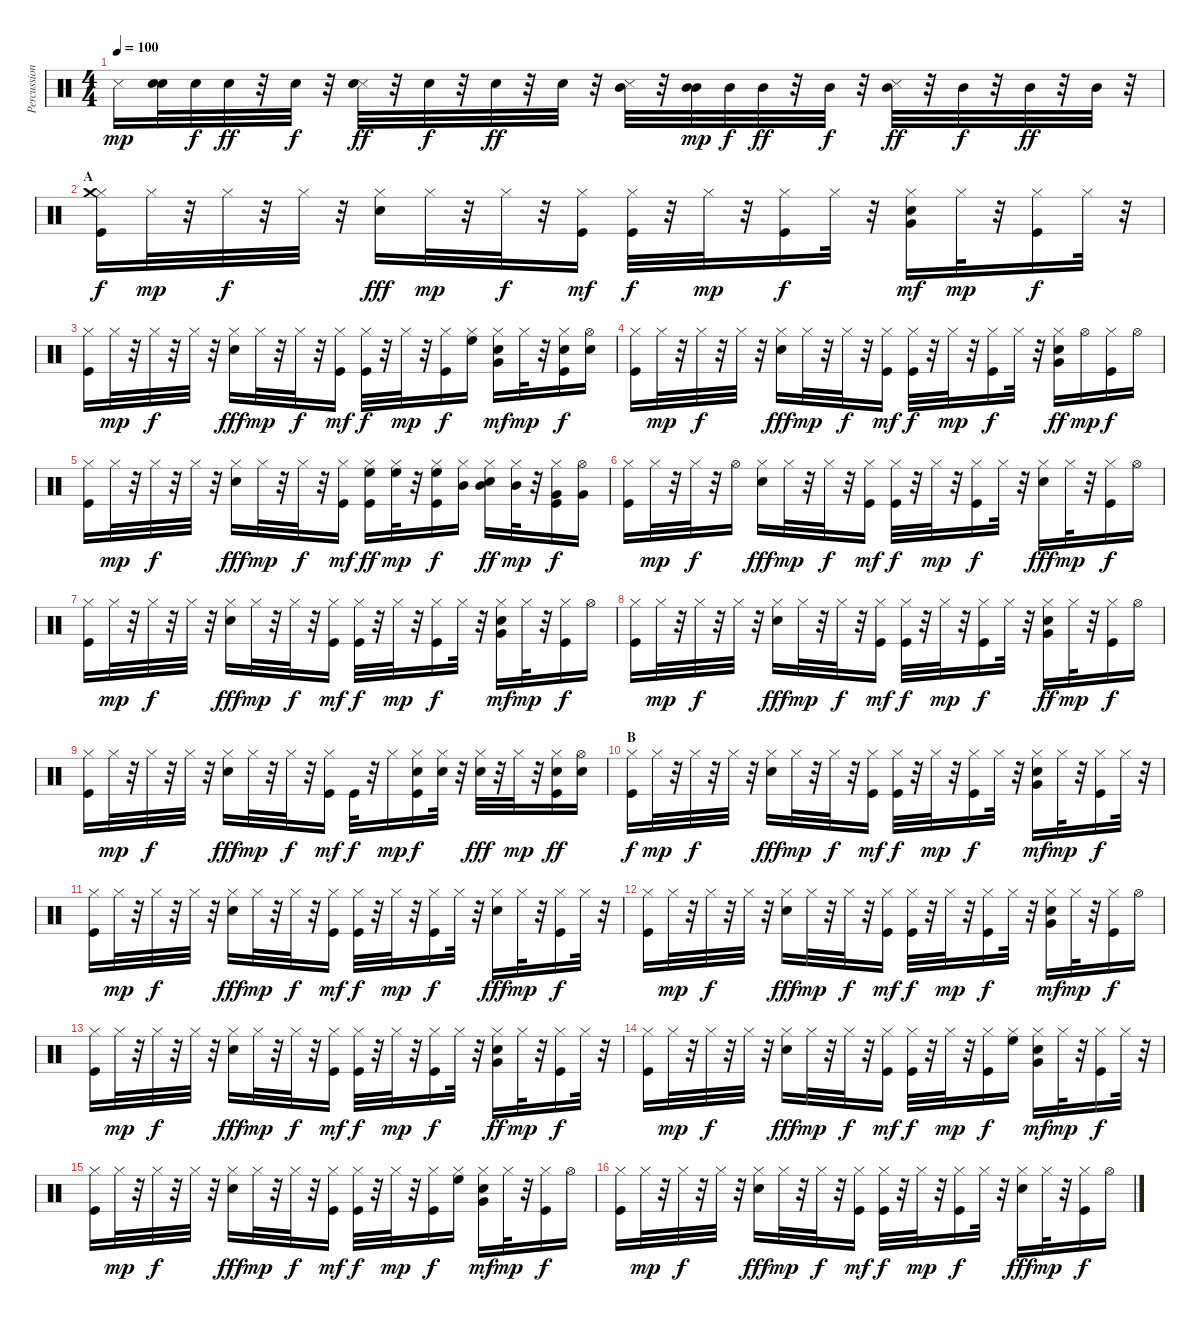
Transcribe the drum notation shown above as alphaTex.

\track ("Percussion" "Percussion") {instrument percussion}
\staff {score}
\articulation defaults
\ts (4 4)
\tempo 100
\clef neutral
\ks c "Metronome (hit)".16{dy mp}
("Electric Snare (hit)" "Electric Snare (hit)").32 "Electric Snare (hit)".32{dy f} "Electric Snare (hit)".32{dy ff} r.32 "Electric Snare (hit)".32{dy f} r.32 ("Metronome (hit)" "Electric Snare (hit)").32{dy ff} r.32 "Electric Snare (hit)".32{dy f} r.32 "Electric Snare (hit)".32{dy ff} r.32 "Electric Snare (hit)".32 r.32 ("Metronome (hit)" "Mid Tom (hit)").32 r.32 ("Mid Tom (hit)" "Mid Tom (hit)").32{dy mp} "Mid Tom (hit)".32{dy f} "Mid Tom (hit)".32{dy ff} r.32 "Mid Tom (hit)".32{dy f} r.32 ("Metronome (hit)" "Mid Tom (hit)").32{dy ff} r.32 "Mid Tom (hit)".32{dy f} r.32 "Mid Tom (hit)".32{dy ff} r.32 "Mid Tom (hit)".32 r.32 |
\section ("" "A")
("Kick (hit)" "Hi-Hat (closed)" "Crash medium (hit)").16{dy f} "Hi-Hat (closed)".32{dy mp} r.32 "Hi-Hat (closed)".32{dy f} r.32 "Hi-Hat (closed)".32 r.32 ("Electric Snare (hit)" "Hi-Hat (closed)").16{dy fff} "Hi-Hat (closed)".32{dy mp} r.32 "Hi-Hat (closed)".32{dy f} r.32 ("Kick (hit)" "Hi-Hat (closed)").16{dy mf} ("Kick (hit)" "Hi-Hat (closed)").32{dy f} r.32 "Hi-Hat (closed)".32{dy mp} r.32 ("Kick (hit)" "Hi-Hat (closed)").16{dy f} "Hi-Hat (closed)".32 r.32 ("Electric Snare (hit)" "Hi-Hat (closed)" "Very Low Tom (hit)").16{dy mf} "Hi-Hat (closed)".32{dy mp} r.32 ("Kick (hit)" "Hi-Hat (closed)").16{dy f} "Hi-Hat (closed)".32 r.32 |
("Kick (hit)" "Hi-Hat (closed)").16 "Hi-Hat (closed)".32{dy mp} r.32 "Hi-Hat (closed)".32{dy f} r.32 "Hi-Hat (closed)".32 r.32 ("Electric Snare (hit)" "Hi-Hat (closed)").16{dy fff} "Hi-Hat (closed)".32{dy mp} r.32 "Hi-Hat (closed)".32{dy f} r.32 ("Kick (hit)" "Hi-Hat (closed)").16{dy mf} ("Kick (hit)" "Hi-Hat (closed)").32{dy f} r.32 "Hi-Hat (closed)".32{dy mp} r.32 ("Kick (hit)" "Hi-Hat (closed)").16{dy f} ("Hi-Hat (closed)" "High Floor Tom (hit)").16 ("Electric Snare (hit)" "Hi-Hat (closed)" "Very Low Tom (hit)").16{dy mf} "Hi-Hat (closed)".32{dy mp} r.32 ("Kick (hit)" "Electric Snare (hit)" "Hi-Hat (closed)").16{dy f} ("Electric Snare (hit)" "Hi-Hat (open)").16 |
("Kick (hit)" "Hi-Hat (closed)").16 "Hi-Hat (closed)".32{dy mp} r.32 "Hi-Hat (closed)".32{dy f} r.32 "Hi-Hat (closed)".32 r.32 ("Electric Snare (hit)" "Hi-Hat (closed)").16{dy fff} "Hi-Hat (closed)".32{dy mp} r.32 "Hi-Hat (closed)".32{dy f} r.32 ("Kick (hit)" "Hi-Hat (closed)").16{dy mf} ("Kick (hit)" "Hi-Hat (closed)").32{dy f} r.32 "Hi-Hat (closed)".32{dy mp} r.32 ("Kick (hit)" "Hi-Hat (closed)").16{dy f} "Hi-Hat (closed)".32 r.32 ("Electric Snare (hit)" "Hi-Hat (closed)" "Very Low Tom (hit)").16{dy ff} "Hi-Hat (open)".16{dy mp} ("Kick (hit)" "Hi-Hat (closed)").16{dy f} "Hi-Hat (open)".16 |
("Kick (hit)" "Hi-Hat (closed)").16 "Hi-Hat (closed)".32{dy mp} r.32 "Hi-Hat (closed)".32{dy f} r.32 "Hi-Hat (closed)".32 r.32 ("Electric Snare (hit)" "Hi-Hat (closed)").16{dy fff} "Hi-Hat (closed)".32{dy mp} r.32 "Hi-Hat (closed)".32{dy f} r.32 ("Kick (hit)" "Hi-Hat (closed)").16{dy mf} ("Kick (hit)" "Hi-Hat (closed)" "High Floor Tom (hit)").16{dy ff} ("Hi-Hat (closed)" "High Floor Tom (hit)").32{dy mp} r.32 ("Kick (hit)" "Hi-Hat (closed)" "High Floor Tom (hit)").16{dy f} ("Hi-Hat (closed)" "Mid Tom (hit)").16 ("Electric Snare (hit)" "Hi-Hat (closed)" "Mid Tom (hit)").16{dy ff} ("Hi-Hat (closed)" "Mid Tom (hit)").32{dy mp} r.32 ("Kick (hit)" "Hi-Hat (closed)" "Very Low Tom (hit)").16{dy f} ("Very Low Tom (hit)" "Hi-Hat (open)").16 |
("Kick (hit)" "Hi-Hat (closed)").16 "Hi-Hat (closed)".32{dy mp} r.32 "Hi-Hat (closed)".32{dy f} r.32 "Hi-Hat (open)".16 ("Electric Snare (hit)" "Hi-Hat (closed)").16{dy fff} "Hi-Hat (closed)".32{dy mp} r.32 "Hi-Hat (closed)".32{dy f} r.32 ("Kick (hit)" "Hi-Hat (closed)").16{dy mf} ("Kick (hit)" "Hi-Hat (closed)").32{dy f} r.32 "Hi-Hat (closed)".32{dy mp} r.32 ("Kick (hit)" "Hi-Hat (closed)").16{dy f} "Hi-Hat (closed)".32 r.32 ("Electric Snare (hit)" "Hi-Hat (closed)").16{dy fff} "Hi-Hat (closed)".32{dy mp} r.32 ("Kick (hit)" "Hi-Hat (closed)").16{dy f} "Hi-Hat (open)".16 |
("Kick (hit)" "Hi-Hat (closed)").16 "Hi-Hat (closed)".32{dy mp} r.32 "Hi-Hat (closed)".32{dy f} r.32 "Hi-Hat (closed)".32 r.32 ("Electric Snare (hit)" "Hi-Hat (closed)").16{dy fff} "Hi-Hat (closed)".32{dy mp} r.32 "Hi-Hat (closed)".32{dy f} r.32 ("Kick (hit)" "Hi-Hat (closed)").16{dy mf} ("Kick (hit)" "Hi-Hat (closed)").32{dy f} r.32 "Hi-Hat (closed)".32{dy mp} r.32 ("Kick (hit)" "Hi-Hat (closed)").16{dy f} "Hi-Hat (closed)".32 r.32 ("Electric Snare (hit)" "Hi-Hat (closed)" "Very Low Tom (hit)").16{dy mf} "Hi-Hat (closed)".32{dy mp} r.32 ("Kick (hit)" "Hi-Hat (closed)").16{dy f} "Hi-Hat (open)".16 |
("Kick (hit)" "Hi-Hat (closed)").16 "Hi-Hat (closed)".32{dy mp} r.32 "Hi-Hat (closed)".32{dy f} r.32 "Hi-Hat (closed)".32 r.32 ("Electric Snare (hit)" "Hi-Hat (closed)").16{dy fff} "Hi-Hat (closed)".32{dy mp} r.32 "Hi-Hat (closed)".32{dy f} r.32 ("Kick (hit)" "Hi-Hat (closed)").16{dy mf} ("Kick (hit)" "Hi-Hat (closed)").32{dy f} r.32 "Hi-Hat (closed)".32{dy mp} r.32 ("Kick (hit)" "Hi-Hat (closed)").16{dy f} "Hi-Hat (closed)".32 r.32 ("Electric Snare (hit)" "Hi-Hat (closed)" "Very Low Tom (hit)").16{dy ff} "Hi-Hat (closed)".32{dy mp} r.32 ("Kick (hit)" "Hi-Hat (closed)").16{dy f} "Hi-Hat (open)".16 |
("Kick (hit)" "Hi-Hat (closed)").16 "Hi-Hat (closed)".32{dy mp} r.32 "Hi-Hat (closed)".32{dy f} r.32 "Hi-Hat (closed)".32 r.32 ("Electric Snare (hit)" "Hi-Hat (closed)").16{dy fff} "Hi-Hat (closed)".32{dy mp} r.32 "Hi-Hat (closed)".32{dy f} r.32 ("Kick (hit)" "Hi-Hat (closed)").16{dy mf} "Kick (hit)".32{dy f} r.32 "Hi-Hat (closed)".16{dy mp} ("Kick (hit)" "Electric Snare (hit)" "Hi-Hat (closed)").16{dy f} ("Electric Snare (hit)" "Hi-Hat (closed)").32 r.32 ("Electric Snare (hit)" "Hi-Hat (closed)").32{dy fff} r.32 "Hi-Hat (closed)".32{dy mp} r.32 ("Kick (hit)" "Electric Snare (hit)" "Hi-Hat (closed)").16{dy ff} ("Electric Snare (hit)" "Hi-Hat (open)").16 |
\section ("" "B")
("Kick (hit)" "Hi-Hat (closed)").16{dy f} "Hi-Hat (closed)".32{dy mp} r.32 "Hi-Hat (closed)".32{dy f} r.32 "Hi-Hat (closed)".32 r.32 ("Electric Snare (hit)" "Hi-Hat (closed)").16{dy fff} "Hi-Hat (closed)".32{dy mp} r.32 "Hi-Hat (closed)".32{dy f} r.32 ("Kick (hit)" "Hi-Hat (closed)").16{dy mf} ("Kick (hit)" "Hi-Hat (closed)").32{dy f} r.32 "Hi-Hat (closed)".32{dy mp} r.32 ("Kick (hit)" "Hi-Hat (closed)").16{dy f} "Hi-Hat (closed)".32 r.32 ("Electric Snare (hit)" "Hi-Hat (closed)" "Very Low Tom (hit)").16{dy mf} "Hi-Hat (closed)".32{dy mp} r.32 ("Kick (hit)" "Hi-Hat (closed)").16{dy f} "Hi-Hat (closed)".32 r.32 |
("Kick (hit)" "Hi-Hat (closed)").16 "Hi-Hat (closed)".32{dy mp} r.32 "Hi-Hat (closed)".32{dy f} r.32 "Hi-Hat (closed)".32 r.32 ("Electric Snare (hit)" "Hi-Hat (closed)").16{dy fff} "Hi-Hat (closed)".32{dy mp} r.32 "Hi-Hat (closed)".32{dy f} r.32 ("Kick (hit)" "Hi-Hat (closed)").16{dy mf} ("Kick (hit)" "Hi-Hat (closed)").32{dy f} r.32 "Hi-Hat (closed)".32{dy mp} r.32 ("Kick (hit)" "Hi-Hat (closed)").16{dy f} "Hi-Hat (closed)".32 r.32 ("Electric Snare (hit)" "Hi-Hat (closed)").16{dy fff} "Hi-Hat (closed)".32{dy mp} r.32 ("Kick (hit)" "Hi-Hat (closed)").16{dy f} "Hi-Hat (closed)".32 r.32 |
("Kick (hit)" "Hi-Hat (closed)").16 "Hi-Hat (closed)".32{dy mp} r.32 "Hi-Hat (closed)".32{dy f} r.32 "Hi-Hat (closed)".32 r.32 ("Electric Snare (hit)" "Hi-Hat (closed)").16{dy fff} "Hi-Hat (closed)".32{dy mp} r.32 "Hi-Hat (closed)".32{dy f} r.32 ("Kick (hit)" "Hi-Hat (closed)").16{dy mf} ("Kick (hit)" "Hi-Hat (closed)").32{dy f} r.32 "Hi-Hat (closed)".32{dy mp} r.32 ("Kick (hit)" "Hi-Hat (closed)").16{dy f} "Hi-Hat (closed)".32 r.32 ("Electric Snare (hit)" "Hi-Hat (closed)" "Very Low Tom (hit)").16{dy mf} "Hi-Hat (closed)".32{dy mp} r.32 ("Kick (hit)" "Hi-Hat (closed)").16{dy f} "Hi-Hat (open)".16 |
("Kick (hit)" "Hi-Hat (closed)").16 "Hi-Hat (closed)".32{dy mp} r.32 "Hi-Hat (closed)".32{dy f} r.32 "Hi-Hat (closed)".32 r.32 ("Electric Snare (hit)" "Hi-Hat (closed)").16{dy fff} "Hi-Hat (closed)".32{dy mp} r.32 "Hi-Hat (closed)".32{dy f} r.32 ("Kick (hit)" "Hi-Hat (closed)").16{dy mf} ("Kick (hit)" "Hi-Hat (closed)").32{dy f} r.32 "Hi-Hat (closed)".32{dy mp} r.32 ("Kick (hit)" "Hi-Hat (closed)").16{dy f} "Hi-Hat (closed)".32 r.32 ("Electric Snare (hit)" "Hi-Hat (closed)" "Very Low Tom (hit)").16{dy ff} "Hi-Hat (closed)".32{dy mp} r.32 ("Kick (hit)" "Hi-Hat (closed)").16{dy f} "Hi-Hat (closed)".32 r.32 |
("Kick (hit)" "Hi-Hat (closed)").16 "Hi-Hat (closed)".32{dy mp} r.32 "Hi-Hat (closed)".32{dy f} r.32 "Hi-Hat (closed)".32 r.32 ("Electric Snare (hit)" "Hi-Hat (closed)").16{dy fff} "Hi-Hat (closed)".32{dy mp} r.32 "Hi-Hat (closed)".32{dy f} r.32 ("Kick (hit)" "Hi-Hat (closed)").16{dy mf} ("Kick (hit)" "Hi-Hat (closed)").32{dy f} r.32 "Hi-Hat (closed)".32{dy mp} r.32 ("Kick (hit)" "Hi-Hat (closed)").16{dy f} ("Hi-Hat (closed)" "High Floor Tom (hit)").16 ("Electric Snare (hit)" "Hi-Hat (closed)" "Very Low Tom (hit)").16{dy mf} "Hi-Hat (closed)".32{dy mp} r.32 ("Kick (hit)" "Hi-Hat (closed)").16{dy f} "Hi-Hat (closed)".32 r.32 |
("Kick (hit)" "Hi-Hat (closed)").16 "Hi-Hat (closed)".32{dy mp} r.32 "Hi-Hat (closed)".32{dy f} r.32 "Hi-Hat (closed)".32 r.32 ("Electric Snare (hit)" "Hi-Hat (closed)").16{dy fff} "Hi-Hat (closed)".32{dy mp} r.32 "Hi-Hat (closed)".32{dy f} r.32 ("Kick (hit)" "Hi-Hat (closed)").16{dy mf} ("Kick (hit)" "Hi-Hat (closed)").32{dy f} r.32 "Hi-Hat (closed)".32{dy mp} r.32 ("Kick (hit)" "Hi-Hat (closed)").16{dy f} ("Hi-Hat (closed)" "High Floor Tom (hit)").16 ("Electric Snare (hit)" "Hi-Hat (closed)" "Very Low Tom (hit)").16{dy mf} "Hi-Hat (closed)".32{dy mp} r.32 ("Kick (hit)" "Hi-Hat (closed)").16{dy f} "Hi-Hat (open)".16 |
("Kick (hit)" "Hi-Hat (closed)").16 "Hi-Hat (closed)".32{dy mp} r.32 "Hi-Hat (closed)".32{dy f} r.32 "Hi-Hat (closed)".32 r.32 ("Electric Snare (hit)" "Hi-Hat (closed)").16{dy fff} "Hi-Hat (closed)".32{dy mp} r.32 "Hi-Hat (closed)".32{dy f} r.32 ("Kick (hit)" "Hi-Hat (closed)").16{dy mf} ("Kick (hit)" "Hi-Hat (closed)").32{dy f} r.32 "Hi-Hat (closed)".32{dy mp} r.32 ("Kick (hit)" "Hi-Hat (closed)").16{dy f} "Hi-Hat (closed)".32 r.32 ("Electric Snare (hit)" "Hi-Hat (closed)").16{dy fff} "Hi-Hat (closed)".32{dy mp} r.32 ("Kick (hit)" "Hi-Hat (closed)").16{dy f} "Hi-Hat (open)".16
